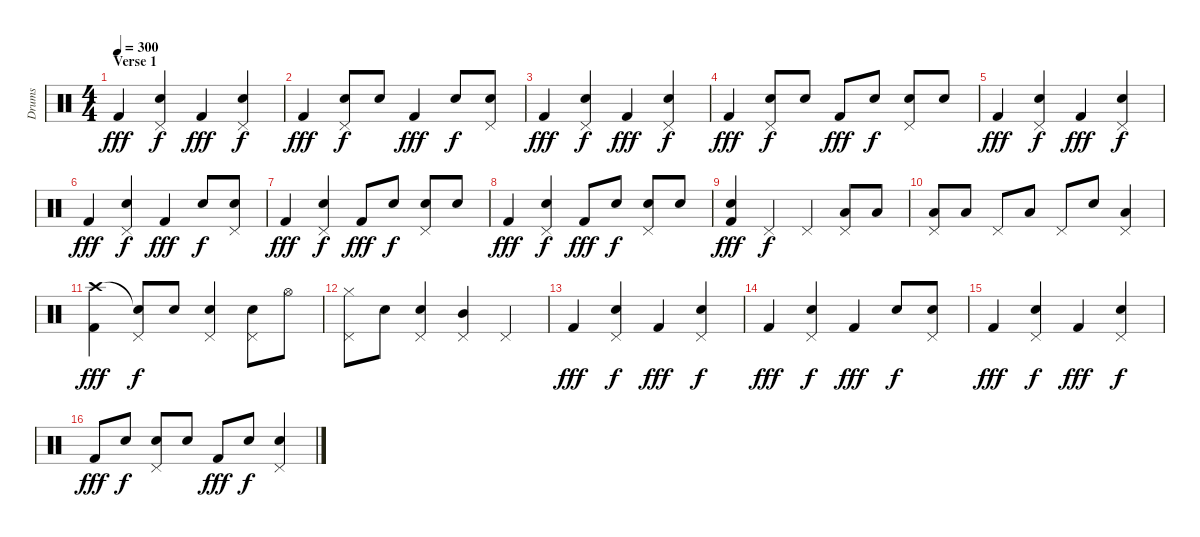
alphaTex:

\track ("Drums" "Drums") {instrument percussion}
\staff {score}
\articulation defaults
\ts (4 4)
\section ("" "Verse 1")
\tempo 300
\clef neutral
\ks c "Kick (hit) 2".4{dy fff}
("Snare (hit) 2" "Pedal Hi-Hat (hit)").4{dy f} "Kick (hit) 2".4{dy fff} ("Snare (hit) 2" "Pedal Hi-Hat (hit)").4{dy f} |
"Kick (hit) 2".4{dy fff} ("Snare (hit) 2" "Pedal Hi-Hat (hit)").8{dy f} "Snare (hit) 2".8 "Kick (hit) 2".4{dy fff} "Snare (hit) 2".8{dy f} ("Snare (hit) 2" "Pedal Hi-Hat (hit)").8 |
"Kick (hit) 2".4{dy fff} ("Snare (hit) 2" "Pedal Hi-Hat (hit)").4{dy f} "Kick (hit) 2".4{dy fff} ("Snare (hit) 2" "Pedal Hi-Hat (hit)").4{dy f} |
"Kick (hit) 2".4{dy fff} ("Snare (hit) 2" "Pedal Hi-Hat (hit)").8{dy f} "Snare (hit) 2".8 "Kick (hit) 2".8{dy fff} "Snare (hit) 2".8{dy f} ("Snare (hit) 2" "Pedal Hi-Hat (hit)").8 "Snare (hit) 2".8 |
"Kick (hit) 2".4{dy fff} ("Snare (hit) 2" "Pedal Hi-Hat (hit)").4{dy f} "Kick (hit) 2".4{dy fff} ("Snare (hit) 2" "Pedal Hi-Hat (hit)").4{dy f} |
"Kick (hit) 2".4{dy fff} ("Snare (hit) 2" "Pedal Hi-Hat (hit)").4{dy f} "Kick (hit) 2".4{dy fff} "Snare (hit) 2".8{dy f} ("Snare (hit) 2" "Pedal Hi-Hat (hit)").8 |
"Kick (hit) 2".4{dy fff} ("Snare (hit) 2" "Pedal Hi-Hat (hit)").4{dy f} "Kick (hit) 2".8{dy fff} "Snare (hit) 2".8{dy f} ("Snare (hit) 2" "Pedal Hi-Hat (hit)").8 "Snare (hit) 2".8 |
"Kick (hit) 2".4{dy fff} ("Snare (hit) 2" "Pedal Hi-Hat (hit)").4{dy f} "Kick (hit) 2".8{dy fff} "Snare (hit) 2".8{dy f} ("Snare (hit) 2" "Pedal Hi-Hat (hit)").8 "Snare (hit) 2".8 |
("Snare (hit) 2" "Kick (hit) 2").4{dy fff} "Pedal Hi-Hat (hit)".4{dy f} "Pedal Hi-Hat (hit)".4 ("Low Tom (hit)" "Pedal Hi-Hat (hit)").8 "Low Tom (hit)".8 |
("Low Tom (hit)" "Pedal Hi-Hat (hit)").8 "Low Tom (hit)".8 "Pedal Hi-Hat (hit)".8 "Low Tom (hit)".8 "Pedal Hi-Hat (hit)".8 "Snare (hit) 2".8 ("Low Tom (hit)" "Pedal Hi-Hat (hit)").4 |
("Crash high (hit)" "Kick (hit) 2").4{dy fff} ("Snare (hit)"{t} "Pedal Hi-Hat (hit)").8{dy f} "Snare (hit) 2".8 ("Snare (hit) 2" "Pedal Hi-Hat (hit)").4 ("Snare (hit) 2" "Pedal Hi-Hat (hit)").8 "Hi-Hat (open)".8 |
("Hi-Hat (closed)" "Pedal Hi-Hat (hit)").8 "Snare (hit) 2".8 ("Snare (hit) 2" "Pedal Hi-Hat (hit)").4 ("Mid Tom (hit)" "Pedal Hi-Hat (hit)").4 "Pedal Hi-Hat (hit)".4 |
"Kick (hit) 2".4{dy fff} ("Snare (hit) 2" "Pedal Hi-Hat (hit)").4{dy f} "Kick (hit) 2".4{dy fff} ("Snare (hit) 2" "Pedal Hi-Hat (hit)").4{dy f} |
"Kick (hit) 2".4{dy fff} ("Snare (hit) 2" "Pedal Hi-Hat (hit)").4{dy f} "Kick (hit) 2".4{dy fff} "Snare (hit) 2".8{dy f} ("Snare (hit) 2" "Pedal Hi-Hat (hit)").8 |
"Kick (hit) 2".4{dy fff} ("Snare (hit) 2" "Pedal Hi-Hat (hit)").4{dy f} "Kick (hit) 2".4{dy fff} ("Snare (hit) 2" "Pedal Hi-Hat (hit)").4{dy f} |
"Kick (hit) 2".8{dy fff} "Snare (hit) 2".8{dy f} ("Snare (hit) 2" "Pedal Hi-Hat (hit)").8 "Snare (hit) 2".8 "Kick (hit) 2".8{dy fff} "Snare (hit) 2".8{dy f} ("Snare (hit) 2" "Pedal Hi-Hat (hit)").4
